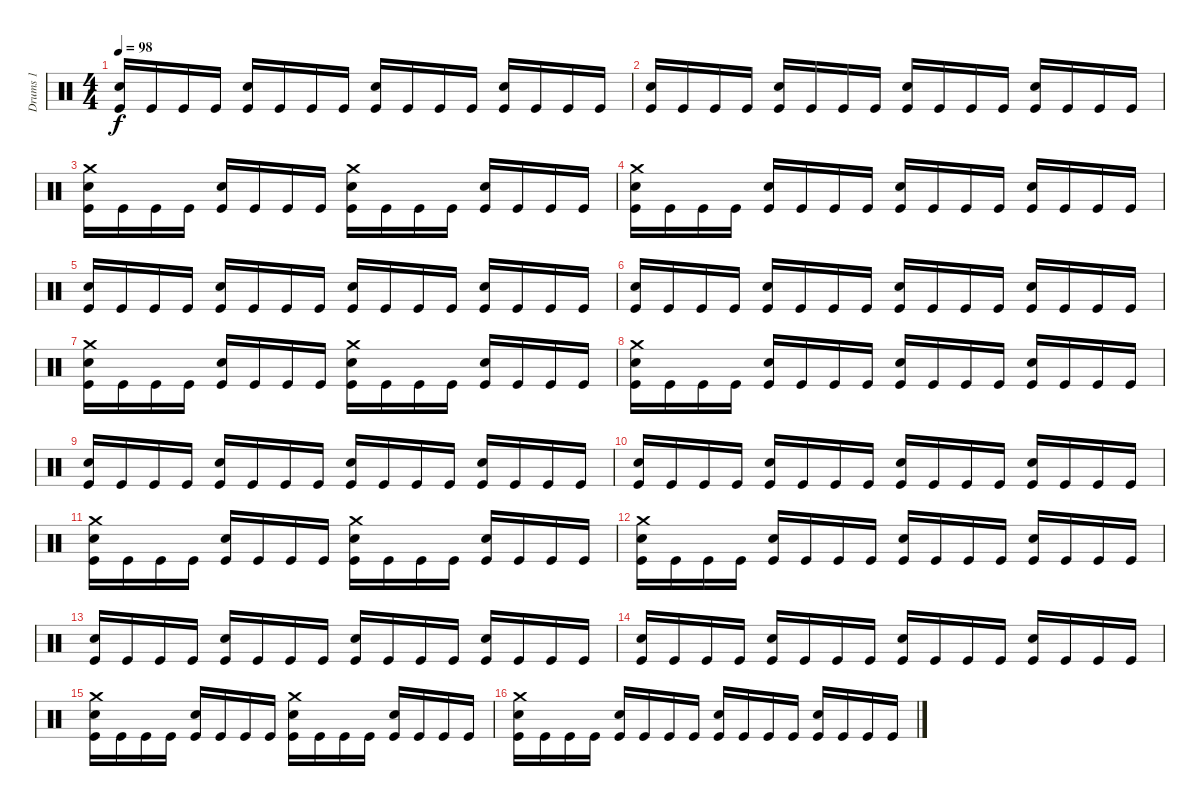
\track ("Drums 1" "Drums 1") {instrument percussion}
\staff {score}
\articulation defaults
\ts (4 4)
\tempo 98
\clef neutral
\ks c
("Snare (hit) 2" "Kick (hit)").16{dy f} "Kick (hit)".16 "Kick (hit)".16 "Kick (hit)".16 ("Snare (hit) 2" "Kick (hit)").16 "Kick (hit)".16 "Kick (hit)".16 "Kick (hit)".16 ("Snare (hit) 2" "Kick (hit)").16 "Kick (hit)".16 "Kick (hit)".16 "Kick (hit)".16 ("Snare (hit) 2" "Kick (hit)").16 "Kick (hit)".16 "Kick (hit)".16 "Kick (hit)".16 |
("Snare (hit) 2" "Kick (hit)").16 "Kick (hit)".16 "Kick (hit)".16 "Kick (hit)".16 ("Snare (hit) 2" "Kick (hit)").16 "Kick (hit)".16 "Kick (hit)".16 "Kick (hit)".16 ("Snare (hit) 2" "Kick (hit)").16 "Kick (hit)".16 "Kick (hit)".16 "Kick (hit)".16 ("Snare (hit) 2" "Kick (hit)").16 "Kick (hit)".16 "Kick (hit)".16 "Kick (hit)".16 |
("Crash medium (hit)" "Snare (hit) 2" "Kick (hit)").16 "Kick (hit)".16 "Kick (hit)".16 "Kick (hit)".16 ("Snare (hit) 2" "Kick (hit)").16 "Kick (hit)".16 "Kick (hit)".16 "Kick (hit)".16 ("Crash medium (hit)" "Snare (hit) 2" "Kick (hit)").16 "Kick (hit)".16 "Kick (hit)".16 "Kick (hit)".16 ("Snare (hit) 2" "Kick (hit)").16 "Kick (hit)".16 "Kick (hit)".16 "Kick (hit)".16 |
("Crash medium (hit)" "Snare (hit) 2" "Kick (hit)").16 "Kick (hit)".16 "Kick (hit)".16 "Kick (hit)".16 ("Snare (hit) 2" "Kick (hit)").16 "Kick (hit)".16 "Kick (hit)".16 "Kick (hit)".16 ("Snare (hit) 2" "Kick (hit)").16 "Kick (hit)".16 "Kick (hit)".16 "Kick (hit)".16 ("Snare (hit) 2" "Kick (hit)").16 "Kick (hit)".16 "Kick (hit)".16 "Kick (hit)".16 |
("Snare (hit) 2" "Kick (hit)").16 "Kick (hit)".16 "Kick (hit)".16 "Kick (hit)".16 ("Snare (hit) 2" "Kick (hit)").16 "Kick (hit)".16 "Kick (hit)".16 "Kick (hit)".16 ("Snare (hit) 2" "Kick (hit)").16 "Kick (hit)".16 "Kick (hit)".16 "Kick (hit)".16 ("Snare (hit) 2" "Kick (hit)").16 "Kick (hit)".16 "Kick (hit)".16 "Kick (hit)".16 |
("Snare (hit) 2" "Kick (hit)").16 "Kick (hit)".16 "Kick (hit)".16 "Kick (hit)".16 ("Snare (hit) 2" "Kick (hit)").16 "Kick (hit)".16 "Kick (hit)".16 "Kick (hit)".16 ("Snare (hit) 2" "Kick (hit)").16 "Kick (hit)".16 "Kick (hit)".16 "Kick (hit)".16 ("Snare (hit) 2" "Kick (hit)").16 "Kick (hit)".16 "Kick (hit)".16 "Kick (hit)".16 |
("Crash medium (hit)" "Snare (hit) 2" "Kick (hit)").16 "Kick (hit)".16 "Kick (hit)".16 "Kick (hit)".16 ("Snare (hit) 2" "Kick (hit)").16 "Kick (hit)".16 "Kick (hit)".16 "Kick (hit)".16 ("Crash medium (hit)" "Snare (hit) 2" "Kick (hit)").16 "Kick (hit)".16 "Kick (hit)".16 "Kick (hit)".16 ("Snare (hit) 2" "Kick (hit)").16 "Kick (hit)".16 "Kick (hit)".16 "Kick (hit)".16 |
("Crash medium (hit)" "Snare (hit) 2" "Kick (hit)").16 "Kick (hit)".16 "Kick (hit)".16 "Kick (hit)".16 ("Snare (hit) 2" "Kick (hit)").16 "Kick (hit)".16 "Kick (hit)".16 "Kick (hit)".16 ("Snare (hit) 2" "Kick (hit)").16 "Kick (hit)".16 "Kick (hit)".16 "Kick (hit)".16 ("Snare (hit) 2" "Kick (hit)").16 "Kick (hit)".16 "Kick (hit)".16 "Kick (hit)".16 |
("Snare (hit) 2" "Kick (hit)").16 "Kick (hit)".16 "Kick (hit)".16 "Kick (hit)".16 ("Snare (hit) 2" "Kick (hit)").16 "Kick (hit)".16 "Kick (hit)".16 "Kick (hit)".16 ("Snare (hit) 2" "Kick (hit)").16 "Kick (hit)".16 "Kick (hit)".16 "Kick (hit)".16 ("Snare (hit) 2" "Kick (hit)").16 "Kick (hit)".16 "Kick (hit)".16 "Kick (hit)".16 |
("Snare (hit) 2" "Kick (hit)").16 "Kick (hit)".16 "Kick (hit)".16 "Kick (hit)".16 ("Snare (hit) 2" "Kick (hit)").16 "Kick (hit)".16 "Kick (hit)".16 "Kick (hit)".16 ("Snare (hit) 2" "Kick (hit)").16 "Kick (hit)".16 "Kick (hit)".16 "Kick (hit)".16 ("Snare (hit) 2" "Kick (hit)").16 "Kick (hit)".16 "Kick (hit)".16 "Kick (hit)".16 |
("Crash medium (hit)" "Snare (hit) 2" "Kick (hit)").16 "Kick (hit)".16 "Kick (hit)".16 "Kick (hit)".16 ("Snare (hit) 2" "Kick (hit)").16 "Kick (hit)".16 "Kick (hit)".16 "Kick (hit)".16 ("Crash medium (hit)" "Snare (hit) 2" "Kick (hit)").16 "Kick (hit)".16 "Kick (hit)".16 "Kick (hit)".16 ("Snare (hit) 2" "Kick (hit)").16 "Kick (hit)".16 "Kick (hit)".16 "Kick (hit)".16 |
("Crash medium (hit)" "Snare (hit) 2" "Kick (hit)").16 "Kick (hit)".16 "Kick (hit)".16 "Kick (hit)".16 ("Snare (hit) 2" "Kick (hit)").16 "Kick (hit)".16 "Kick (hit)".16 "Kick (hit)".16 ("Snare (hit) 2" "Kick (hit)").16 "Kick (hit)".16 "Kick (hit)".16 "Kick (hit)".16 ("Snare (hit) 2" "Kick (hit)").16 "Kick (hit)".16 "Kick (hit)".16 "Kick (hit)".16 |
("Snare (hit) 2" "Kick (hit)").16 "Kick (hit)".16 "Kick (hit)".16 "Kick (hit)".16 ("Snare (hit) 2" "Kick (hit)").16 "Kick (hit)".16 "Kick (hit)".16 "Kick (hit)".16 ("Snare (hit) 2" "Kick (hit)").16 "Kick (hit)".16 "Kick (hit)".16 "Kick (hit)".16 ("Snare (hit) 2" "Kick (hit)").16 "Kick (hit)".16 "Kick (hit)".16 "Kick (hit)".16 |
("Snare (hit) 2" "Kick (hit)").16 "Kick (hit)".16 "Kick (hit)".16 "Kick (hit)".16 ("Snare (hit) 2" "Kick (hit)").16 "Kick (hit)".16 "Kick (hit)".16 "Kick (hit)".16 ("Snare (hit) 2" "Kick (hit)").16 "Kick (hit)".16 "Kick (hit)".16 "Kick (hit)".16 ("Snare (hit) 2" "Kick (hit)").16 "Kick (hit)".16 "Kick (hit)".16 "Kick (hit)".16 |
("Crash medium (hit)" "Snare (hit) 2" "Kick (hit)").16 "Kick (hit)".16 "Kick (hit)".16 "Kick (hit)".16 ("Snare (hit) 2" "Kick (hit)").16 "Kick (hit)".16 "Kick (hit)".16 "Kick (hit)".16 ("Crash medium (hit)" "Snare (hit) 2" "Kick (hit)").16 "Kick (hit)".16 "Kick (hit)".16 "Kick (hit)".16 ("Snare (hit) 2" "Kick (hit)").16 "Kick (hit)".16 "Kick (hit)".16 "Kick (hit)".16 |
("Crash medium (hit)" "Snare (hit) 2" "Kick (hit)").16 "Kick (hit)".16 "Kick (hit)".16 "Kick (hit)".16 ("Snare (hit) 2" "Kick (hit)").16 "Kick (hit)".16 "Kick (hit)".16 "Kick (hit)".16 ("Snare (hit) 2" "Kick (hit)").16 "Kick (hit)".16 "Kick (hit)".16 "Kick (hit)".16 ("Snare (hit) 2" "Kick (hit)").16 "Kick (hit)".16 "Kick (hit)".16 "Kick (hit)".16
